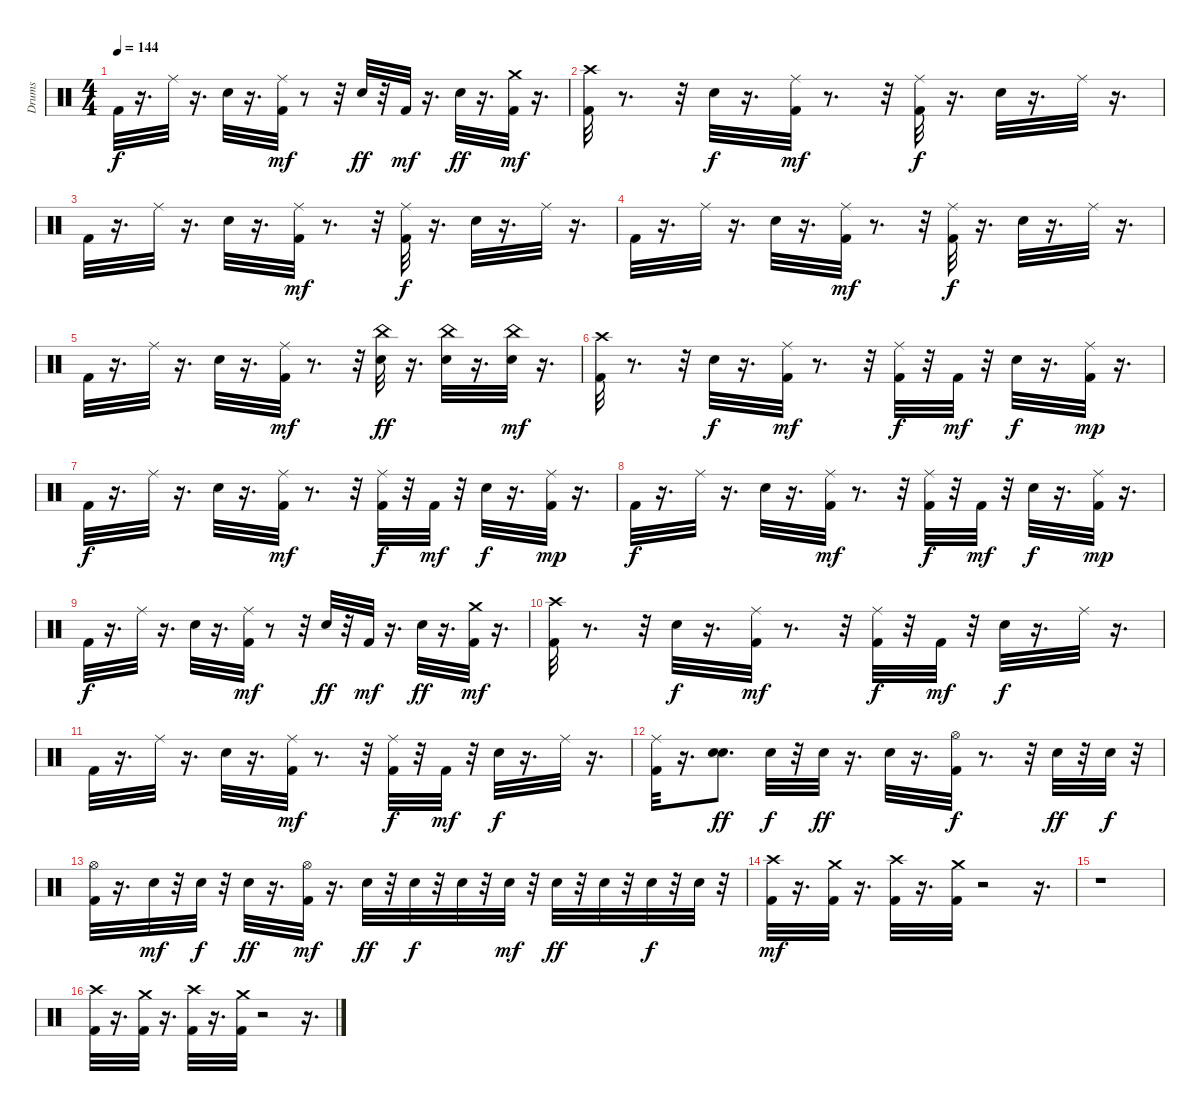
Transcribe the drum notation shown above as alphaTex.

\track ("Drums" "Drums") {instrument percussion}
\staff {score}
\articulation defaults
\ts (4 4)
\tempo 144
\clef neutral
\ks c "Kick (hit) 2".32{dy f}
r.16{d} "Ride (middle)".32 r.16{d} "Snare (hit) 2".32 r.16{d} ("Ride (middle)" "Kick (hit) 2").32{dy mf} r.8 r.32 "Snare (hit) 2".32{dy ff} r.32 "Kick (hit) 2".32{dy mf} r.16{d} "Snare (hit) 2".32{dy ff} r.16{d} ("Kick (hit) 2" "Crash medium (hit)").32{dy mf} r.16{d} |
("Crash high (hit)" "Kick (hit) 2").32 r.8{d} r.32 "Snare (hit) 2".32{dy f} r.16{d} ("Ride (middle)" "Kick (hit) 2").32{dy mf} r.8{d} r.32 ("Ride (middle)" "Kick (hit) 2").32{dy f} r.16{d} "Snare (hit) 2".32 r.16{d} "Ride (middle)".32 r.16{d} |
"Kick (hit) 2".32 r.16{d} "Ride (middle)".32 r.16{d} "Snare (hit) 2".32 r.16{d} ("Ride (middle)" "Kick (hit) 2").32{dy mf} r.8{d} r.32 ("Ride (middle)" "Kick (hit) 2").32{dy f} r.16{d} "Snare (hit) 2".32 r.16{d} "Ride (middle)".32 r.16{d} |
"Kick (hit) 2".32 r.16{d} "Ride (middle)".32 r.16{d} "Snare (hit) 2".32 r.16{d} ("Ride (middle)" "Kick (hit) 2").32{dy mf} r.8{d} r.32 ("Ride (middle)" "Kick (hit) 2").32{dy f} r.16{d} "Snare (hit) 2".32 r.16{d} "Ride (middle)".32 r.16{d} |
"Kick (hit) 2".32 r.16{d} "Ride (middle)".32 r.16{d} "Snare (hit) 2".32 r.16{d} ("Ride (middle)" "Kick (hit) 2").32{dy mf} r.8{d} r.32 ("China (hit)" "Snare (hit) 2").32{dy ff} r.16{d} ("China (hit)" "Snare (hit) 2").32 r.16{d} ("Snare (hit) 2" "China (hit)").32{dy mf} r.16{d} |
("Crash high (hit)" "Kick (hit) 2").32 r.8{d} r.32 "Snare (hit) 2".32{dy f} r.16{d} ("Ride (middle)" "Kick (hit) 2").32{dy mf} r.8{d} r.32 ("Ride (middle)" "Kick (hit) 2").32{dy f} r.32 "Kick (hit) 2".32{dy mf} r.32 "Snare (hit) 2".32{dy f} r.16{d} ("Kick (hit) 2" "Ride (middle)").32{dy mp} r.16{d} |
"Kick (hit) 2".32{dy f} r.16{d} "Ride (middle)".32 r.16{d} "Snare (hit) 2".32 r.16{d} ("Ride (middle)" "Kick (hit) 2").32{dy mf} r.8{d} r.32 ("Ride (middle)" "Kick (hit) 2").32{dy f} r.32 "Kick (hit) 2".32{dy mf} r.32 "Snare (hit) 2".32{dy f} r.16{d} ("Kick (hit) 2" "Ride (middle)").32{dy mp} r.16{d} |
"Kick (hit) 2".32{dy f} r.16{d} "Ride (middle)".32 r.16{d} "Snare (hit) 2".32 r.16{d} ("Ride (middle)" "Kick (hit) 2").32{dy mf} r.8{d} r.32 ("Ride (middle)" "Kick (hit) 2").32{dy f} r.32 "Kick (hit) 2".32{dy mf} r.32 "Snare (hit) 2".32{dy f} r.16{d} ("Kick (hit) 2" "Ride (middle)").32{dy mp} r.16{d} |
"Kick (hit) 2".32{dy f} r.16{d} "Ride (middle)".32 r.16{d} "Snare (hit) 2".32 r.16{d} ("Ride (middle)" "Kick (hit) 2").32{dy mf} r.8 r.32 "Snare (hit) 2".32{dy ff} r.32 "Kick (hit) 2".32{dy mf} r.16{d} "Snare (hit) 2".32{dy ff} r.16{d} ("Kick (hit) 2" "Crash medium (hit)").32{dy mf} r.16{d} |
("Crash high (hit)" "Kick (hit) 2").32 r.8{d} r.32 "Snare (hit) 2".32{dy f} r.16{d} ("Ride (middle)" "Kick (hit) 2").32{dy mf} r.8{d} r.32 ("Ride (middle)" "Kick (hit) 2").32{dy f} r.32 "Kick (hit) 2".32{dy mf} r.32 "Snare (hit) 2".32{dy f} r.16{d} "Ride (middle)".32 r.16{d} |
"Kick (hit) 2".32 r.16{d} "Ride (middle)".32 r.16{d} "Snare (hit) 2".32 r.16{d} ("Ride (middle)" "Kick (hit) 2").32{dy mf} r.8{d} r.32 ("Ride (middle)" "Kick (hit) 2").32{dy f} r.32 "Kick (hit) 2".32{dy mf} r.32 "Snare (hit) 2".32{dy f} r.16{d} "Ride (middle)".32 r.16{d} |
("Kick (hit) 2" "Ride (middle)").32 r.16{d} ("Snare (hit) 2" "Snare (hit) 2").8{d dy ff} "Snare (hit) 2".32{dy f} r.32 "Snare (hit) 2".32{dy ff} r.16{d} "Snare (hit) 2".32 r.16{d} ("Hi-Hat (open)" "Kick (hit) 2").32{dy f} r.8{d} r.32 "Snare (hit) 2".32{dy ff} r.32 "Snare (hit) 2".32{dy f} r.32 |
("Hi-Hat (open)" "Kick (hit) 2").32 r.16{d} "Snare (hit) 2".32{dy mf} r.32 "Snare (hit) 2".32{dy f} r.32 "Snare (hit) 2".32{dy ff} r.16{d} ("Hi-Hat (open)" "Kick (hit) 2").32{dy mf} r.16{d} "Snare (hit) 2".32{dy ff} r.32 "Snare (hit) 2".32{dy f} r.32 "Snare (hit) 2".32 r.32 "Snare (hit) 2".32{dy mf} r.32 "Snare (hit) 2".32{dy ff} r.32 "Snare (hit) 2".32 r.32 "Snare (hit) 2".32{dy f} r.32 "Snare (hit) 2".32 r.32 |
("Crash high (hit)" "Kick (hit) 2").32{dy mf} r.16{d} ("Kick (hit) 2" "Crash medium (hit)").32 r.16{d} ("Kick (hit) 2" "Crash high (hit)").32 r.16{d} ("Kick (hit) 2" "Crash medium (hit)").32 r.2 r.16{d} |
r.1 |
("Crash high (hit)" "Kick (hit) 2").32 r.16{d} ("Kick (hit) 2" "Crash medium (hit)").32 r.16{d} ("Kick (hit) 2" "Crash high (hit)").32 r.16{d} ("Kick (hit) 2" "Crash medium (hit)").32 r.2 r.16{d}
